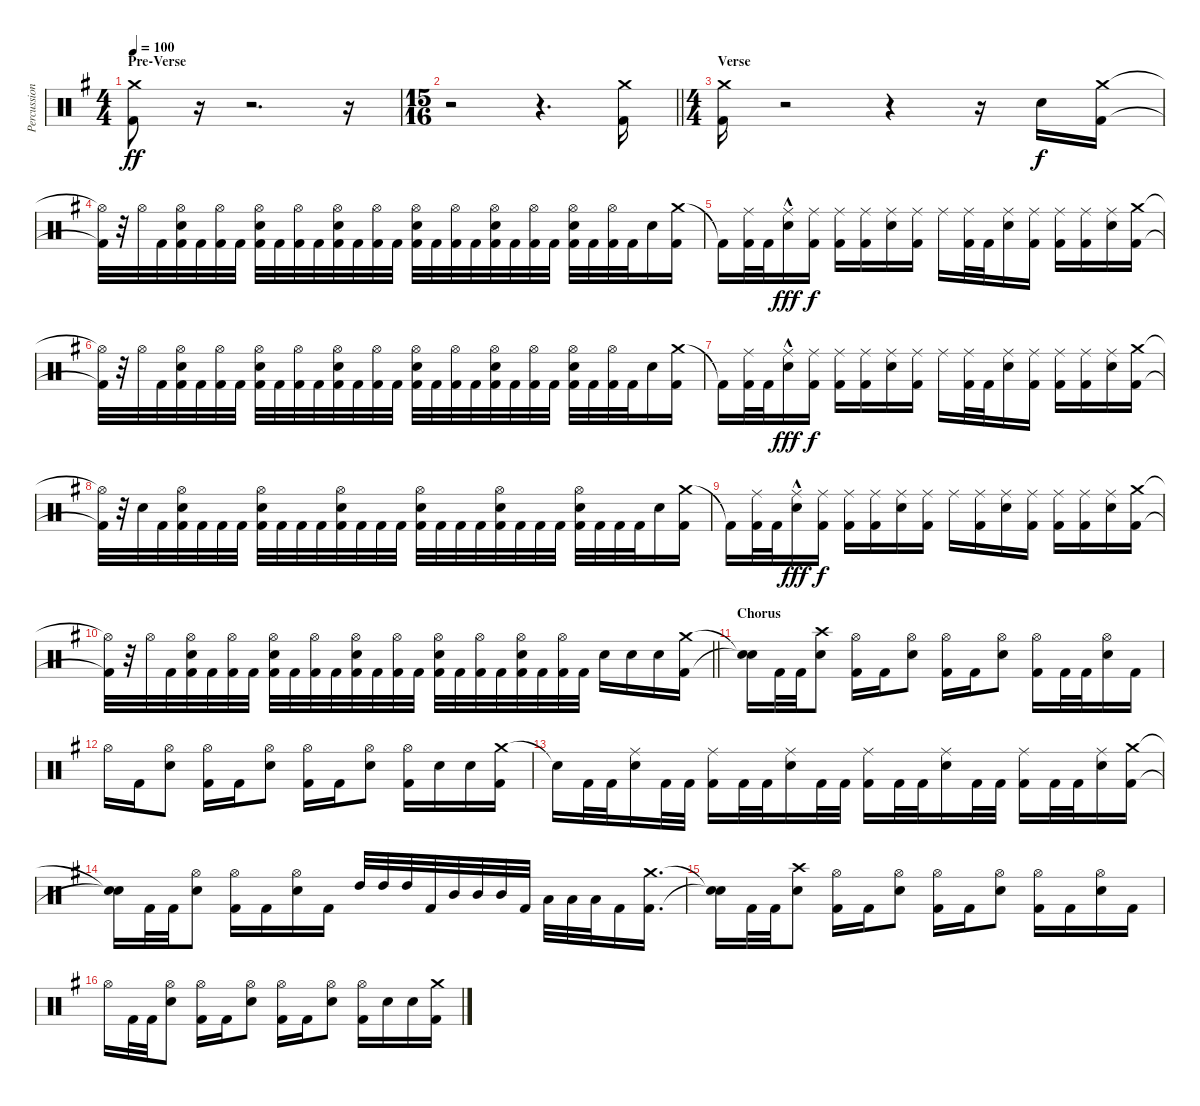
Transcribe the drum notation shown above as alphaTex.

\track ("Percussion" "Percussion") {instrument percussion}
\staff {score}
\articulation defaults
\ts (4 4)
\section ("" "Pre-Verse")
\tempo 100
\clef neutral
\ks eminor
("Crash medium (hit)" "Kick (hit) 2").8{dy ff} r.16 r.2{d} r.16 |
\ts (15 16)
\barLineRight lightlight
r.2 r.4{d} ("Crash medium (hit)" "Kick (hit) 2").16 |
\ts (4 4)
\section ("" "Verse")
("Crash medium (hit)" "Kick (hit) 2").16 r.2 r.4 r.16 "Snare (hit) 2".16{dy f} ("Crash medium (hit)" "Kick (hit) 2").16 |
("Hi-Hat (open)"{t} "Kick (hit) 2"{t}).32 r.32 "Hi-Hat (open)".32 "Kick (hit) 2".32 ("Hi-Hat (open)" "Snare (hit) 2" "Kick (hit) 2").32 "Kick (hit) 2".32 ("Hi-Hat (open)" "Kick (hit) 2").32 "Kick (hit) 2".32 ("Hi-Hat (open)" "Snare (hit) 2" "Kick (hit) 2").32 "Kick (hit) 2".32 ("Hi-Hat (open)" "Kick (hit) 2").32 "Kick (hit) 2".32 ("Hi-Hat (open)" "Snare (hit) 2" "Kick (hit) 2").32 "Kick (hit) 2".32 ("Hi-Hat (open)" "Kick (hit) 2").32 "Kick (hit) 2".32 ("Hi-Hat (open)" "Snare (hit) 2" "Kick (hit) 2").32 "Kick (hit) 2".32 ("Hi-Hat (open)" "Kick (hit) 2").32 "Kick (hit) 2".32 ("Hi-Hat (open)" "Snare (hit) 2" "Kick (hit) 2").32 "Kick (hit) 2".32 ("Hi-Hat (open)" "Kick (hit) 2").32 "Kick (hit) 2".32 ("Hi-Hat (open)" "Snare (hit) 2" "Kick (hit) 2").32 "Kick (hit) 2".32 ("Hi-Hat (open)" "Kick (hit) 2").32 "Kick (hit) 2".32 "Snare (hit) 2".16 ("Crash medium (hit)" "Kick (hit) 2").16 |
"Kick (hit) 2"{t}.16 ("Ride (middle)" "Kick (hit) 2").32 "Kick (hit) 2".32 ("Ride (middle)"{hac} "Snare (hit) 2").16{dy fff} ("Ride (middle)" "Kick (hit) 2").16{dy f} ("Ride (middle)" "Kick (hit) 2").16 ("Ride (middle)" "Kick (hit) 2").16 ("Ride (middle)" "Snare (hit) 2").16 ("Ride (middle)" "Kick (hit) 2").16 "Ride (middle)".16 ("Ride (middle)" "Kick (hit) 2").32 "Kick (hit) 2".32 ("Ride (middle)" "Snare (hit) 2").16 ("Ride (middle)" "Kick (hit) 2").16 ("Ride (middle)" "Kick (hit) 2").16 ("Ride (middle)" "Kick (hit) 2").16 ("Ride (middle)" "Snare (hit) 2").16 ("Crash medium (hit)" "Kick (hit) 2").16 |
("Hi-Hat (open)"{t} "Kick (hit) 2"{t}).32 r.32 "Hi-Hat (open)".32 "Kick (hit) 2".32 ("Hi-Hat (open)" "Snare (hit) 2" "Kick (hit) 2").32 "Kick (hit) 2".32 ("Hi-Hat (open)" "Kick (hit) 2").32 "Kick (hit) 2".32 ("Hi-Hat (open)" "Snare (hit) 2" "Kick (hit) 2").32 "Kick (hit) 2".32 ("Hi-Hat (open)" "Kick (hit) 2").32 "Kick (hit) 2".32 ("Hi-Hat (open)" "Snare (hit) 2" "Kick (hit) 2").32 "Kick (hit) 2".32 ("Hi-Hat (open)" "Kick (hit) 2").32 "Kick (hit) 2".32 ("Hi-Hat (open)" "Snare (hit) 2" "Kick (hit) 2").32 "Kick (hit) 2".32 ("Hi-Hat (open)" "Kick (hit) 2").32 "Kick (hit) 2".32 ("Hi-Hat (open)" "Snare (hit) 2" "Kick (hit) 2").32 "Kick (hit) 2".32 ("Hi-Hat (open)" "Kick (hit) 2").32 "Kick (hit) 2".32 ("Hi-Hat (open)" "Snare (hit) 2" "Kick (hit) 2").32 "Kick (hit) 2".32 ("Hi-Hat (open)" "Kick (hit) 2").32 "Kick (hit) 2".32 "Snare (hit) 2".16 ("Crash medium (hit)" "Kick (hit) 2").16 |
"Kick (hit) 2"{t}.16 ("Ride (middle)" "Kick (hit) 2").32 "Kick (hit) 2".32 ("Ride (middle)"{hac} "Snare (hit) 2").16{dy fff} ("Ride (middle)" "Kick (hit) 2").16{dy f} ("Ride (middle)" "Kick (hit) 2").16 ("Ride (middle)" "Kick (hit) 2").16 ("Ride (middle)" "Snare (hit) 2").16 ("Ride (middle)" "Kick (hit) 2").16 "Ride (middle)".16 ("Ride (middle)" "Kick (hit) 2").32 "Kick (hit) 2".32 ("Ride (middle)" "Snare (hit) 2").16 ("Ride (middle)" "Kick (hit) 2").16 ("Ride (middle)" "Kick (hit) 2").16 ("Ride (middle)" "Kick (hit) 2").16 ("Ride (middle)" "Snare (hit) 2").16 ("Crash medium (hit)" "Kick (hit) 2").16 |
("Hi-Hat (open)"{t} "Kick (hit) 2"{t}).32 r.32 "Snare (hit) 2".32 "Kick (hit) 2".32 ("Hi-Hat (open)" "Snare (hit) 2" "Kick (hit) 2").32 "Kick (hit) 2".32 "Kick (hit) 2".32 "Kick (hit) 2".32 ("Hi-Hat (open)" "Snare (hit) 2" "Kick (hit) 2").32 "Kick (hit) 2".32 "Kick (hit) 2".32 "Kick (hit) 2".32 ("Hi-Hat (open)" "Snare (hit) 2" "Kick (hit) 2").32 "Kick (hit) 2".32 "Kick (hit) 2".32 "Kick (hit) 2".32 ("Hi-Hat (open)" "Snare (hit) 2" "Kick (hit) 2").32 "Kick (hit) 2".32 "Kick (hit) 2".32 "Kick (hit) 2".32 ("Hi-Hat (open)" "Snare (hit) 2" "Kick (hit) 2").32 "Kick (hit) 2".32 "Kick (hit) 2".32 "Kick (hit) 2".32 ("Hi-Hat (open)" "Snare (hit) 2" "Kick (hit) 2").32 "Kick (hit) 2".32 "Kick (hit) 2".32 "Kick (hit) 2".32 "Snare (hit) 2".16 ("Crash medium (hit)" "Kick (hit) 2").16 |
"Kick (hit) 2"{t}.16 ("Ride (middle)" "Kick (hit) 2").32 "Kick (hit) 2".32 ("Ride (middle)"{hac} "Snare (hit) 2").16{dy fff} ("Ride (middle)" "Kick (hit) 2").16{dy f} ("Ride (middle)" "Kick (hit) 2").16 ("Ride (middle)" "Kick (hit) 2").16 ("Ride (middle)" "Snare (hit) 2").16 ("Ride (middle)" "Kick (hit) 2").16 "Ride (middle)".16 ("Ride (middle)" "Kick (hit) 2").16 ("Ride (middle)" "Snare (hit) 2").16 ("Ride (middle)" "Kick (hit) 2").16 ("Ride (middle)" "Kick (hit) 2").16 ("Ride (middle)" "Kick (hit) 2").16 ("Ride (middle)" "Snare (hit) 2").16 ("Crash medium (hit)" "Kick (hit) 2").16 |
\barLineRight lightlight
("Hi-Hat (open)"{t} "Kick (hit) 2"{t}).32 r.32 "Hi-Hat (open)".32 "Kick (hit) 2".32 ("Hi-Hat (open)" "Snare (hit) 2" "Kick (hit) 2").32 "Kick (hit) 2".32 ("Hi-Hat (open)" "Kick (hit) 2").32 "Kick (hit) 2".32 ("Hi-Hat (open)" "Snare (hit) 2" "Kick (hit) 2").32 "Kick (hit) 2".32 ("Hi-Hat (open)" "Kick (hit) 2").32 "Kick (hit) 2".32 ("Hi-Hat (open)" "Snare (hit) 2" "Kick (hit) 2").32 "Kick (hit) 2".32 ("Hi-Hat (open)" "Kick (hit) 2").32 "Kick (hit) 2".32 ("Hi-Hat (open)" "Snare (hit) 2" "Kick (hit) 2").32 "Kick (hit) 2".32 ("Hi-Hat (open)" "Kick (hit) 2").32 "Kick (hit) 2".32 ("Hi-Hat (open)" "Snare (hit) 2" "Kick (hit) 2").32 "Kick (hit) 2".32 ("Hi-Hat (open)" "Kick (hit) 2").32 "Kick (hit) 2".32 "Snare (hit) 2".16 "Snare (hit) 2".16 "Snare (hit) 2".16 ("Crash medium (hit)" "Kick (hit) 2").16 |
\section ("" "Chorus")
("Snare (hit)"{t} "Snare (hit)"{t}).16 "Kick (hit) 2".32 "Kick (hit) 2".32 ("Crash high (hit)" "Snare (hit) 2").8 ("Hi-Hat (open)" "Kick (hit) 2").16 "Kick (hit) 2".16 ("Hi-Hat (open)" "Snare (hit) 2").8 ("Hi-Hat (open)" "Kick (hit) 2").16 "Kick (hit) 2".16 ("Hi-Hat (open)" "Snare (hit) 2").8 ("Hi-Hat (open)" "Kick (hit) 2").16 "Kick (hit) 2".32 "Kick (hit) 2".32 ("Hi-Hat (open)" "Snare (hit) 2").16 "Kick (hit) 2".16 |
"Hi-Hat (open)".16 "Kick (hit) 2".16 ("Hi-Hat (open)" "Snare (hit) 2").8 ("Hi-Hat (open)" "Kick (hit) 2").16 "Kick (hit) 2".16 ("Hi-Hat (open)" "Snare (hit) 2").8 ("Hi-Hat (open)" "Kick (hit) 2").16 "Kick (hit) 2".16 ("Hi-Hat (open)" "Snare (hit) 2").8 ("Hi-Hat (open)" "Kick (hit) 2").16 "Snare (hit) 2".16 "Snare (hit) 2".16 ("Crash medium (hit)" "Kick (hit) 2").16 |
"Snare (hit)"{t}.16 "Kick (hit) 2".32 "Kick (hit) 2".32 ("Ride (middle)" "Snare (hit) 2").16 "Kick (hit) 2".32 "Kick (hit) 2".32 ("Ride (middle)" "Kick (hit) 2").16 "Kick (hit) 2".32 "Kick (hit) 2".32 ("Ride (middle)" "Snare (hit) 2").16 "Kick (hit) 2".32 "Kick (hit) 2".32 ("Ride (middle)" "Kick (hit) 2").16 "Kick (hit) 2".32 "Kick (hit) 2".32 ("Ride (middle)" "Snare (hit) 2").16 "Kick (hit) 2".32 "Kick (hit) 2".32 ("Ride (middle)" "Kick (hit) 2").16 "Kick (hit) 2".32 "Kick (hit) 2".32 ("Ride (middle)" "Snare (hit) 2").16 ("Crash medium (hit)" "Kick (hit) 2").16 |
("Snare (hit)"{t} "Snare (hit)"{t}).16 "Kick (hit) 2".32 "Kick (hit) 2".32 ("Hi-Hat (open)" "Snare (hit) 2").8 ("Hi-Hat (open)" "Kick (hit) 2").16 "Kick (hit) 2".16 ("Hi-Hat (open)" "Snare (hit) 2").16 "Kick (hit) 2".16 "High Tom (hit)".32 "High Tom (hit)".32 "High Tom (hit)".32 "Kick (hit) 2".32 "Mid Tom (hit)".32 "Mid Tom (hit)".32 "Mid Tom (hit)".32 "Kick (hit) 2".32 "Low Tom (hit)".32 "Low Tom (hit)".32 "Low Tom (hit)".32 "Kick (hit) 2".16 ("Crash medium (hit)" "Kick (hit) 2").16{d} |
("Snare (hit)"{t} "Snare (hit)"{t}).16 "Kick (hit) 2".32 "Kick (hit) 2".32 ("Crash high (hit)" "Snare (hit) 2").8 ("Hi-Hat (open)" "Kick (hit) 2").16 "Kick (hit) 2".16 ("Hi-Hat (open)" "Snare (hit) 2").8 ("Hi-Hat (open)" "Kick (hit) 2").16 "Kick (hit) 2".16 ("Hi-Hat (open)" "Snare (hit) 2").8 ("Hi-Hat (open)" "Kick (hit) 2").16 "Kick (hit) 2".16 ("Hi-Hat (open)" "Snare (hit) 2").16 "Kick (hit) 2".16 |
"Hi-Hat (open)".16 "Kick (hit) 2".32 "Kick (hit) 2".32 ("Hi-Hat (open)" "Snare (hit) 2").8 ("Hi-Hat (open)" "Kick (hit) 2").16 "Kick (hit) 2".16 ("Hi-Hat (open)" "Snare (hit) 2").8 ("Hi-Hat (open)" "Kick (hit) 2").16 "Kick (hit) 2".16 ("Hi-Hat (open)" "Snare (hit) 2").8 ("Hi-Hat (open)" "Kick (hit) 2").16 "Snare (hit) 2".16 "Snare (hit) 2".16 ("Crash medium (hit)" "Kick (hit) 2").16
